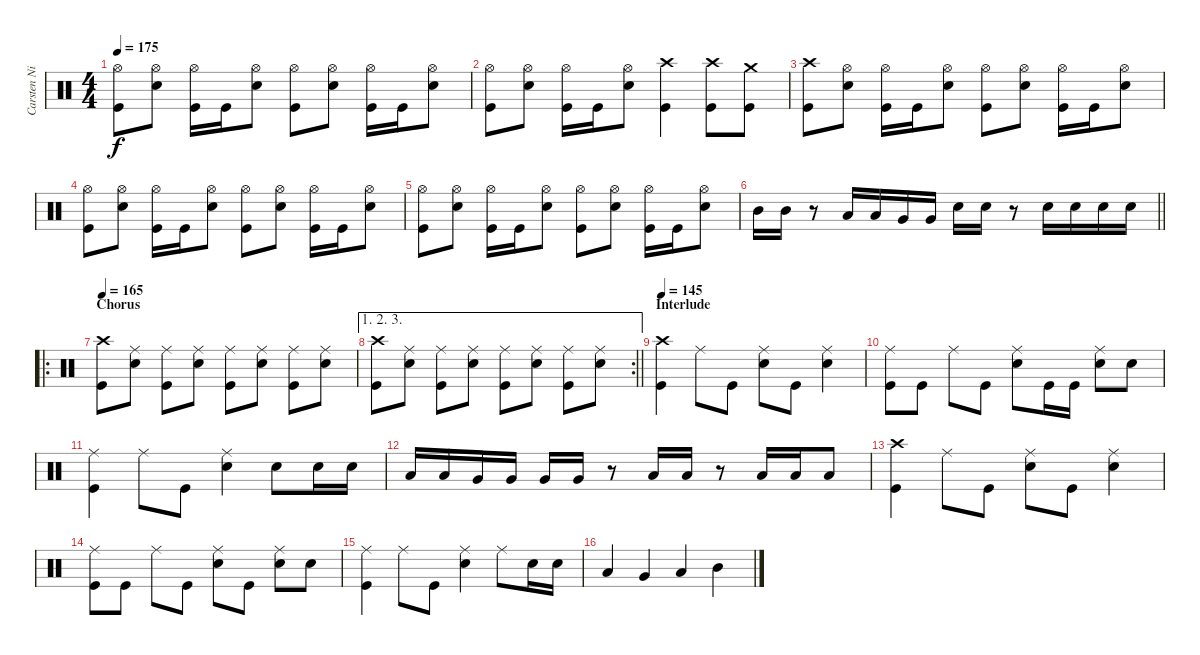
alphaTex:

\track ("Carsten Nielsen" "Carsten Ni") {instrument percussion}
\staff {score}
\articulation defaults
\ts (4 4)
\tempo 175
\clef neutral
\ks c
("Hi-Hat (open)" "Kick (hit)").8{dy f} ("Hi-Hat (open)" "Electric Snare (hit)").8 ("Hi-Hat (open)" "Kick (hit)").16 "Kick (hit)".16 ("Hi-Hat (open)" "Electric Snare (hit)").8 ("Hi-Hat (open)" "Kick (hit)").8 ("Hi-Hat (open)" "Electric Snare (hit)").8 ("Hi-Hat (open)" "Kick (hit)").16 "Kick (hit)".16 ("Hi-Hat (open)" "Electric Snare (hit)").8 |
("Hi-Hat (open)" "Kick (hit)").8 ("Hi-Hat (open)" "Electric Snare (hit)").8 ("Hi-Hat (open)" "Kick (hit)").16 "Kick (hit)".16 ("Hi-Hat (open)" "Electric Snare (hit)").8 ("Crash high (hit)" "Kick (hit)").4 ("Crash high (hit)" "Kick (hit)").8 ("Crash medium (hit)" "Kick (hit)").8 |
("Crash high (hit)" "Kick (hit)").8 ("Hi-Hat (open)" "Electric Snare (hit)").8 ("Hi-Hat (open)" "Kick (hit)").16 "Kick (hit)".16 ("Hi-Hat (open)" "Electric Snare (hit)").8 ("Hi-Hat (open)" "Kick (hit)").8 ("Hi-Hat (open)" "Electric Snare (hit)").8 ("Hi-Hat (open)" "Kick (hit)").16 "Kick (hit)".16 ("Hi-Hat (open)" "Electric Snare (hit)").8 |
("Hi-Hat (open)" "Kick (hit)").8 ("Hi-Hat (open)" "Electric Snare (hit)").8 ("Hi-Hat (open)" "Kick (hit)").16 "Kick (hit)".16 ("Hi-Hat (open)" "Electric Snare (hit)").8 ("Hi-Hat (open)" "Kick (hit)").8 ("Hi-Hat (open)" "Electric Snare (hit)").8 ("Hi-Hat (open)" "Kick (hit)").16 "Kick (hit)".16 ("Hi-Hat (open)" "Electric Snare (hit)").8 |
("Hi-Hat (open)" "Kick (hit)").8 ("Hi-Hat (open)" "Electric Snare (hit)").8 ("Hi-Hat (open)" "Kick (hit)").16 "Kick (hit)".16 ("Hi-Hat (open)" "Electric Snare (hit)").8 ("Hi-Hat (open)" "Kick (hit)").8 ("Hi-Hat (open)" "Electric Snare (hit)").8 ("Hi-Hat (open)" "Kick (hit)").16 "Kick (hit)".16 ("Hi-Hat (open)" "Electric Snare (hit)").8 |
\barLineRight lightlight "Mid Tom (hit)".16 "Mid Tom (hit)".16
r.8 "Low Tom (hit)".16 "Low Tom (hit)".16 "Very Low Tom (hit)".16 "Very Low Tom (hit)".16 "Electric Snare (hit)".16 "Electric Snare (hit)".16 r.8 "Electric Snare (hit)".16 "Electric Snare (hit)".16 "Electric Snare (hit)".16 "Electric Snare (hit)".16 |
\ro
\section ("" "Chorus")
\tempo 165
("Crash high (hit)" "Kick (hit)").8 ("Ride (middle)" "Electric Snare (hit)").8 ("Ride (middle)" "Kick (hit)").8 ("Ride (middle)" "Electric Snare (hit)").8 ("Ride (middle)" "Kick (hit)").8 ("Ride (middle)" "Electric Snare (hit)").8 ("Ride (middle)" "Kick (hit)").8 ("Ride (middle)" "Electric Snare (hit)").8 |
\ae (1 2 3)
\rc 2
\barLineRight lightlight
("Crash high (hit)" "Kick (hit)").8 ("Ride (middle)" "Electric Snare (hit)").8 ("Ride (middle)" "Kick (hit)").8 ("Ride (middle)" "Electric Snare (hit)").8 ("Ride (middle)" "Kick (hit)").8 ("Ride (middle)" "Electric Snare (hit)").8 ("Ride (middle)" "Kick (hit)").8 ("Ride (middle)" "Electric Snare (hit)").8 |
\section ("" "Interlude")
\tempo 145
("Crash high (hit)" "Kick (hit)").4 "Ride (middle)".8 "Kick (hit)".8 ("Ride (middle)" "Electric Snare (hit)").8 "Kick (hit)".8 ("Ride (middle)" "Electric Snare (hit)").4 |
("Ride (middle)" "Kick (hit)").8 "Kick (hit)".8 "Ride (middle)".8 "Kick (hit)".8 ("Ride (middle)" "Electric Snare (hit)").8 "Kick (hit)".16 "Kick (hit)".16 ("Ride (middle)" "Electric Snare (hit)").8 "Electric Snare (hit)".8 |
("Ride (middle)" "Kick (hit)").4 "Ride (middle)".8 "Kick (hit)".8 ("Ride (middle)" "Electric Snare (hit)").4 "Electric Snare (hit)".8 "Electric Snare (hit)".16 "Electric Snare (hit)".16 |
"Low Floor Tom (hit)".16 "Low Floor Tom (hit)".16 "Very Low Tom (hit)".16 "Very Low Tom (hit)".16 "Very Low Tom (hit)".16 "Very Low Tom (hit)".16 r.8 "Low Tom (hit)".16 "Low Tom (hit)".16 r.8 "Low Tom (hit)".16 "Low Tom (hit)".16 "Low Tom (hit)".8 |
("Crash high (hit)" "Kick (hit)").4 "Ride (middle)".8 "Kick (hit)".8 ("Ride (middle)" "Electric Snare (hit)").8 "Kick (hit)".8 ("Ride (middle)" "Electric Snare (hit)").4 |
("Ride (middle)" "Kick (hit)").8 "Kick (hit)".8 "Ride (middle)".8 "Kick (hit)".8 ("Ride (middle)" "Electric Snare (hit)").8 "Kick (hit)".8 ("Ride (middle)" "Electric Snare (hit)").8 "Electric Snare (hit)".8 |
("Ride (middle)" "Kick (hit)").4 "Ride (middle)".8 "Kick (hit)".8 ("Ride (middle)" "Electric Snare (hit)").4 "Ride (middle)".8 "Electric Snare (hit)".16 "Electric Snare (hit)".16 |
"Low Floor Tom (hit)".4 "Very Low Tom (hit)".4 "Low Tom (hit)".4 "Mid Tom (hit)".4
